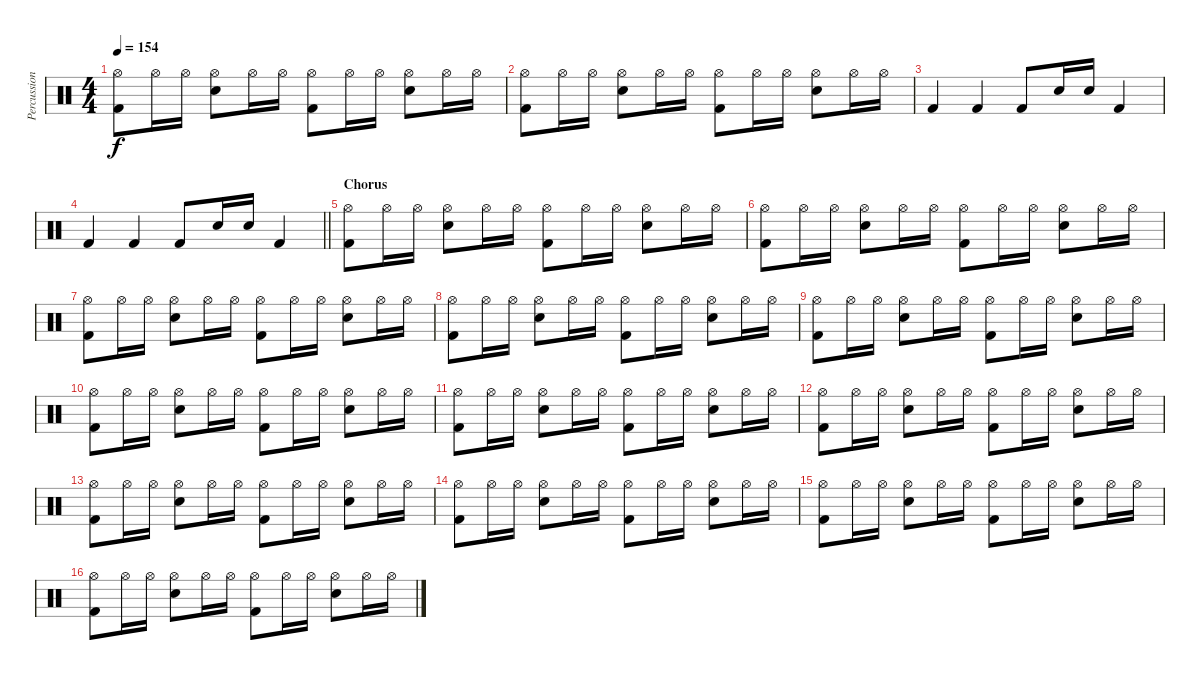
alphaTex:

\track ("Percussion" "Percussion") {instrument percussion}
\staff {score}
\articulation defaults
\ts (4 4)
\tempo 154
\clef neutral
\ks c
("Hi-Hat (open)" "Kick (hit) 2").8{dy f} "Hi-Hat (open)".16 "Hi-Hat (open)".16 ("Hi-Hat (open)" "Snare (hit) 2").8 "Hi-Hat (open)".16 "Hi-Hat (open)".16 ("Hi-Hat (open)" "Kick (hit) 2").8 "Hi-Hat (open)".16 "Hi-Hat (open)".16 ("Hi-Hat (open)" "Snare (hit) 2").8 "Hi-Hat (open)".16 "Hi-Hat (open)".16 |
("Hi-Hat (open)" "Kick (hit) 2").8 "Hi-Hat (open)".16 "Hi-Hat (open)".16 ("Hi-Hat (open)" "Snare (hit) 2").8 "Hi-Hat (open)".16 "Hi-Hat (open)".16 ("Hi-Hat (open)" "Kick (hit) 2").8 "Hi-Hat (open)".16 "Hi-Hat (open)".16 ("Hi-Hat (open)" "Snare (hit) 2").8 "Hi-Hat (open)".16 "Hi-Hat (open)".16 |
"Kick (hit) 2".4 "Kick (hit) 2".4 "Kick (hit) 2".8 "Snare (hit) 2".16 "Snare (hit) 2".16 "Kick (hit) 2".4 |
\barLineRight lightlight "Kick (hit) 2".4 "Kick (hit) 2".4 "Kick (hit) 2".8 "Snare (hit) 2".16 "Snare (hit) 2".16 "Kick (hit) 2".4
|
\section ("" "Chorus")
("Hi-Hat (open)" "Kick (hit) 2").8 "Hi-Hat (open)".16 "Hi-Hat (open)".16 ("Hi-Hat (open)" "Snare (hit) 2").8 "Hi-Hat (open)".16 "Hi-Hat (open)".16 ("Hi-Hat (open)" "Kick (hit) 2").8 "Hi-Hat (open)".16 "Hi-Hat (open)".16 ("Hi-Hat (open)" "Snare (hit) 2").8 "Hi-Hat (open)".16 "Hi-Hat (open)".16 |
("Hi-Hat (open)" "Kick (hit) 2").8 "Hi-Hat (open)".16 "Hi-Hat (open)".16 ("Hi-Hat (open)" "Snare (hit) 2").8 "Hi-Hat (open)".16 "Hi-Hat (open)".16 ("Hi-Hat (open)" "Kick (hit) 2").8 "Hi-Hat (open)".16 "Hi-Hat (open)".16 ("Hi-Hat (open)" "Snare (hit) 2").8 "Hi-Hat (open)".16 "Hi-Hat (open)".16 |
("Hi-Hat (open)" "Kick (hit) 2").8 "Hi-Hat (open)".16 "Hi-Hat (open)".16 ("Hi-Hat (open)" "Snare (hit) 2").8 "Hi-Hat (open)".16 "Hi-Hat (open)".16 ("Hi-Hat (open)" "Kick (hit) 2").8 "Hi-Hat (open)".16 "Hi-Hat (open)".16 ("Hi-Hat (open)" "Snare (hit) 2").8 "Hi-Hat (open)".16 "Hi-Hat (open)".16 |
("Hi-Hat (open)" "Kick (hit) 2").8 "Hi-Hat (open)".16 "Hi-Hat (open)".16 ("Hi-Hat (open)" "Snare (hit) 2").8 "Hi-Hat (open)".16 "Hi-Hat (open)".16 ("Hi-Hat (open)" "Kick (hit) 2").8 "Hi-Hat (open)".16 "Hi-Hat (open)".16 ("Hi-Hat (open)" "Snare (hit) 2").8 "Hi-Hat (open)".16 "Hi-Hat (open)".16 |
("Hi-Hat (open)" "Kick (hit) 2").8 "Hi-Hat (open)".16 "Hi-Hat (open)".16 ("Hi-Hat (open)" "Snare (hit) 2").8 "Hi-Hat (open)".16 "Hi-Hat (open)".16 ("Hi-Hat (open)" "Kick (hit) 2").8 "Hi-Hat (open)".16 "Hi-Hat (open)".16 ("Hi-Hat (open)" "Snare (hit) 2").8 "Hi-Hat (open)".16 "Hi-Hat (open)".16 |
("Hi-Hat (open)" "Kick (hit) 2").8 "Hi-Hat (open)".16 "Hi-Hat (open)".16 ("Hi-Hat (open)" "Snare (hit) 2").8 "Hi-Hat (open)".16 "Hi-Hat (open)".16 ("Hi-Hat (open)" "Kick (hit) 2").8 "Hi-Hat (open)".16 "Hi-Hat (open)".16 ("Hi-Hat (open)" "Snare (hit) 2").8 "Hi-Hat (open)".16 "Hi-Hat (open)".16 |
("Hi-Hat (open)" "Kick (hit) 2").8 "Hi-Hat (open)".16 "Hi-Hat (open)".16 ("Hi-Hat (open)" "Snare (hit) 2").8 "Hi-Hat (open)".16 "Hi-Hat (open)".16 ("Hi-Hat (open)" "Kick (hit) 2").8 "Hi-Hat (open)".16 "Hi-Hat (open)".16 ("Hi-Hat (open)" "Snare (hit) 2").8 "Hi-Hat (open)".16 "Hi-Hat (open)".16 |
("Hi-Hat (open)" "Kick (hit) 2").8 "Hi-Hat (open)".16 "Hi-Hat (open)".16 ("Hi-Hat (open)" "Snare (hit) 2").8 "Hi-Hat (open)".16 "Hi-Hat (open)".16 ("Hi-Hat (open)" "Kick (hit) 2").8 "Hi-Hat (open)".16 "Hi-Hat (open)".16 ("Hi-Hat (open)" "Snare (hit) 2").8 "Hi-Hat (open)".16 "Hi-Hat (open)".16 |
("Hi-Hat (open)" "Kick (hit) 2").8 "Hi-Hat (open)".16 "Hi-Hat (open)".16 ("Hi-Hat (open)" "Snare (hit) 2").8 "Hi-Hat (open)".16 "Hi-Hat (open)".16 ("Hi-Hat (open)" "Kick (hit) 2").8 "Hi-Hat (open)".16 "Hi-Hat (open)".16 ("Hi-Hat (open)" "Snare (hit) 2").8 "Hi-Hat (open)".16 "Hi-Hat (open)".16 |
("Hi-Hat (open)" "Kick (hit) 2").8 "Hi-Hat (open)".16 "Hi-Hat (open)".16 ("Hi-Hat (open)" "Snare (hit) 2").8 "Hi-Hat (open)".16 "Hi-Hat (open)".16 ("Hi-Hat (open)" "Kick (hit) 2").8 "Hi-Hat (open)".16 "Hi-Hat (open)".16 ("Hi-Hat (open)" "Snare (hit) 2").8 "Hi-Hat (open)".16 "Hi-Hat (open)".16 |
("Hi-Hat (open)" "Kick (hit) 2").8 "Hi-Hat (open)".16 "Hi-Hat (open)".16 ("Hi-Hat (open)" "Snare (hit) 2").8 "Hi-Hat (open)".16 "Hi-Hat (open)".16 ("Hi-Hat (open)" "Kick (hit) 2").8 "Hi-Hat (open)".16 "Hi-Hat (open)".16 ("Hi-Hat (open)" "Snare (hit) 2").8 "Hi-Hat (open)".16 "Hi-Hat (open)".16 |
("Hi-Hat (open)" "Kick (hit) 2").8 "Hi-Hat (open)".16 "Hi-Hat (open)".16 ("Hi-Hat (open)" "Snare (hit) 2").8 "Hi-Hat (open)".16 "Hi-Hat (open)".16 ("Hi-Hat (open)" "Kick (hit) 2").8 "Hi-Hat (open)".16 "Hi-Hat (open)".16 ("Hi-Hat (open)" "Snare (hit) 2").8 "Hi-Hat (open)".16 "Hi-Hat (open)".16
